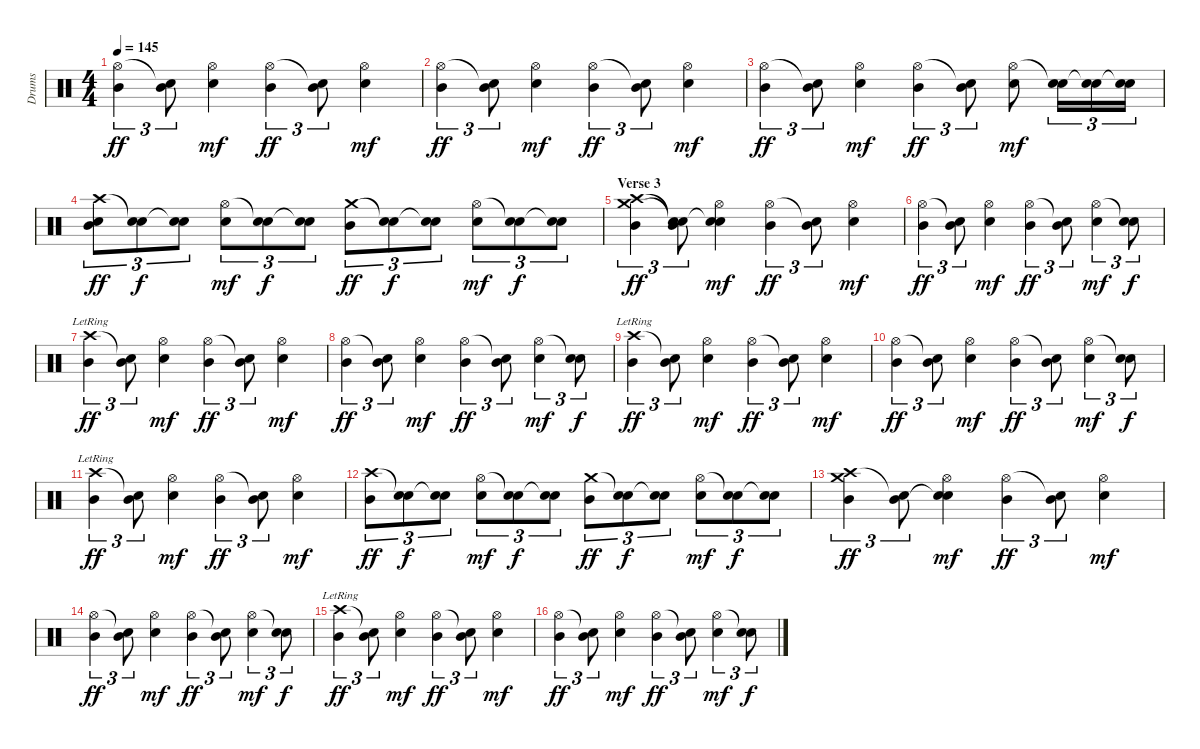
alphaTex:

\track ("Drums" "Drums") {instrument percussion}
\staff {score}
\articulation defaults
\ts (4 4)
\tempo 145
\clef neutral
\ks c
("Hi-Hat (open)" "Mid Tom (hit)").4{tu (3 2) dy ff} ("Snare (hit)"{t} "Mid Tom (hit)").8{tu (3 2)} ("Hi-Hat (open)" "Electric Snare (hit)").4{dy mf} ("Hi-Hat (open)" "Mid Tom (hit)").4{tu (3 2) dy ff} ("Snare (hit)"{t} "Mid Tom (hit)").8{tu (3 2)} ("Hi-Hat (open)" "Electric Snare (hit)").4{dy mf} |
("Hi-Hat (open)" "Mid Tom (hit)").4{tu (3 2) dy ff} ("Snare (hit)"{t} "Mid Tom (hit)").8{tu (3 2)} ("Hi-Hat (open)" "Electric Snare (hit)").4{dy mf} ("Hi-Hat (open)" "Mid Tom (hit)").4{tu (3 2) dy ff} ("Snare (hit)"{t} "Mid Tom (hit)").8{tu (3 2)} ("Hi-Hat (open)" "Electric Snare (hit)").4{dy mf} |
("Hi-Hat (open)" "Mid Tom (hit)").4{tu (3 2) dy ff} ("Snare (hit)"{t} "Mid Tom (hit)").8{tu (3 2)} ("Hi-Hat (open)" "Electric Snare (hit)").4{dy mf} ("Hi-Hat (open)" "Mid Tom (hit)").4{tu (3 2) dy ff} ("Snare (hit)"{t} "Mid Tom (hit)").8{tu (3 2)} ("Hi-Hat (open)" "Electric Snare (hit)").8{dy mf} ("Snare (hit)"{t} "Electric Snare (hit)").16{tu (3 2)} ("Snare (hit)"{t} "Electric Snare (hit)").16{tu (3 2)} ("Snare (hit)"{t} "Electric Snare (hit)").16{tu (3 2)} |
("Crash high (hit)" "Electric Snare (hit)" "Mid Tom (hit)").8{tu (3 2) dy ff} ("Snare (hit)"{t} "Electric Snare (hit)").8{tu (3 2) dy f} ("Snare (hit)"{t} "Electric Snare (hit)").8{tu (3 2)} ("Hi-Hat (open)" "Electric Snare (hit)").8{tu (3 2) dy mf} ("Snare (hit)"{t} "Electric Snare (hit)").8{tu (3 2) dy f} ("Snare (hit)"{t} "Electric Snare (hit)").8{tu (3 2)} ("Crash medium (hit)" "Mid Tom (hit)").8{tu (3 2) dy ff} ("Snare (hit)"{t} "Electric Snare (hit)").8{tu (3 2) dy f} ("Snare (hit)"{t} "Electric Snare (hit)").8{tu (3 2)} ("Hi-Hat (open)" "Electric Snare (hit)").8{tu (3 2) dy mf} ("Snare (hit)"{t} "Electric Snare (hit)").8{tu (3 2) dy f} ("Snare (hit)"{t} "Electric Snare (hit)").8{tu (3 2)} |
\section ("" "Verse 3")
("Crash high (hit)" "Crash medium (hit)" "Mid Tom (hit)").4{tu (3 2) dy ff} ("Snare (hit)"{t} "Snare (hit)"{t} "Mid Tom (hit)").8{tu (3 2)} ("Hi-Hat (open)" "Snare (hit)"{t} "Electric Snare (hit)").4{dy mf} ("Hi-Hat (open)" "Mid Tom (hit)").4{tu (3 2) dy ff} ("Snare (hit)"{t} "Mid Tom (hit)").8{tu (3 2)} ("Hi-Hat (open)" "Electric Snare (hit)").4{dy mf} |
("Hi-Hat (open)" "Mid Tom (hit)").4{tu (3 2) dy ff} ("Snare (hit)"{t} "Mid Tom (hit)").8{tu (3 2)} ("Hi-Hat (open)" "Electric Snare (hit)").4{dy mf} ("Hi-Hat (open)" "Mid Tom (hit)").4{tu (3 2) dy ff} ("Snare (hit)"{t} "Mid Tom (hit)").8{tu (3 2)} ("Hi-Hat (open)" "Electric Snare (hit)").4{tu (3 2) dy mf} ("Snare (hit)"{t} "Electric Snare (hit)").8{tu (3 2) dy f} |
("Crash high (hit)"{lr} "Mid Tom (hit)").4{tu (3 2) dy ff} ("Snare (hit)"{t} "Mid Tom (hit)").8{tu (3 2)} ("Hi-Hat (open)" "Electric Snare (hit)").4{dy mf} ("Hi-Hat (open)" "Mid Tom (hit)").4{tu (3 2) dy ff} ("Snare (hit)"{t} "Mid Tom (hit)").8{tu (3 2)} ("Hi-Hat (open)" "Electric Snare (hit)").4{dy mf} |
("Hi-Hat (open)" "Mid Tom (hit)").4{tu (3 2) dy ff} ("Snare (hit)"{t} "Mid Tom (hit)").8{tu (3 2)} ("Hi-Hat (open)" "Electric Snare (hit)").4{dy mf} ("Hi-Hat (open)" "Mid Tom (hit)").4{tu (3 2) dy ff} ("Snare (hit)"{t} "Mid Tom (hit)").8{tu (3 2)} ("Hi-Hat (open)" "Electric Snare (hit)").4{tu (3 2) dy mf} ("Snare (hit)"{t} "Electric Snare (hit)").8{tu (3 2) dy f} |
("Crash high (hit)"{lr} "Mid Tom (hit)").4{tu (3 2) dy ff} ("Snare (hit)"{t} "Mid Tom (hit)").8{tu (3 2)} ("Hi-Hat (open)" "Electric Snare (hit)").4{dy mf} ("Hi-Hat (open)" "Mid Tom (hit)").4{tu (3 2) dy ff} ("Snare (hit)"{t} "Mid Tom (hit)").8{tu (3 2)} ("Hi-Hat (open)" "Electric Snare (hit)").4{dy mf} |
("Hi-Hat (open)" "Mid Tom (hit)").4{tu (3 2) dy ff} ("Snare (hit)"{t} "Mid Tom (hit)").8{tu (3 2)} ("Hi-Hat (open)" "Electric Snare (hit)").4{dy mf} ("Hi-Hat (open)" "Mid Tom (hit)").4{tu (3 2) dy ff} ("Snare (hit)"{t} "Mid Tom (hit)").8{tu (3 2)} ("Hi-Hat (open)" "Electric Snare (hit)").4{tu (3 2) dy mf} ("Snare (hit)"{t} "Electric Snare (hit)").8{tu (3 2) dy f} |
("Crash high (hit)"{lr} "Mid Tom (hit)").4{tu (3 2) dy ff} ("Snare (hit)"{t} "Mid Tom (hit)").8{tu (3 2)} ("Hi-Hat (open)" "Electric Snare (hit)").4{dy mf} ("Hi-Hat (open)" "Mid Tom (hit)").4{tu (3 2) dy ff} ("Snare (hit)"{t} "Mid Tom (hit)").8{tu (3 2)} ("Hi-Hat (open)" "Electric Snare (hit)").4{dy mf} |
("Crash high (hit)" "Mid Tom (hit)").8{tu (3 2) dy ff} ("Snare (hit)"{t} "Electric Snare (hit)").8{tu (3 2) dy f} ("Snare (hit)"{t} "Electric Snare (hit)").8{tu (3 2)} ("Hi-Hat (open)" "Electric Snare (hit)").8{tu (3 2) dy mf} ("Snare (hit)"{t} "Electric Snare (hit)").8{tu (3 2) dy f} ("Snare (hit)"{t} "Electric Snare (hit)").8{tu (3 2)} ("Crash medium (hit)" "Mid Tom (hit)").8{tu (3 2) dy ff} ("Snare (hit)"{t} "Electric Snare (hit)").8{tu (3 2) dy f} ("Snare (hit)"{t} "Electric Snare (hit)").8{tu (3 2)} ("Hi-Hat (open)" "Electric Snare (hit)").8{tu (3 2) dy mf} ("Snare (hit)"{t} "Electric Snare (hit)").8{tu (3 2) dy f} ("Snare (hit)"{t} "Electric Snare (hit)").8{tu (3 2)} |
("Crash high (hit)" "Crash medium (hit)" "Mid Tom (hit)").4{tu (3 2) dy ff} ("Snare (hit)"{t} "Mid Tom (hit)").8{tu (3 2)} ("Hi-Hat (open)" "Snare (hit)"{t} "Electric Snare (hit)").4{dy mf} ("Hi-Hat (open)" "Mid Tom (hit)").4{tu (3 2) dy ff} ("Snare (hit)"{t} "Mid Tom (hit)").8{tu (3 2)} ("Hi-Hat (open)" "Electric Snare (hit)").4{dy mf} |
("Hi-Hat (open)" "Mid Tom (hit)").4{tu (3 2) dy ff} ("Snare (hit)"{t} "Mid Tom (hit)").8{tu (3 2)} ("Hi-Hat (open)" "Electric Snare (hit)").4{dy mf} ("Hi-Hat (open)" "Mid Tom (hit)").4{tu (3 2) dy ff} ("Snare (hit)"{t} "Mid Tom (hit)").8{tu (3 2)} ("Hi-Hat (open)" "Electric Snare (hit)").4{tu (3 2) dy mf} ("Snare (hit)"{t} "Electric Snare (hit)").8{tu (3 2) dy f} |
("Crash high (hit)"{lr} "Mid Tom (hit)").4{tu (3 2) dy ff} ("Snare (hit)"{t} "Mid Tom (hit)").8{tu (3 2)} ("Hi-Hat (open)" "Electric Snare (hit)").4{dy mf} ("Hi-Hat (open)" "Mid Tom (hit)").4{tu (3 2) dy ff} ("Snare (hit)"{t} "Mid Tom (hit)").8{tu (3 2)} ("Hi-Hat (open)" "Electric Snare (hit)").4{dy mf} |
("Hi-Hat (open)" "Mid Tom (hit)").4{tu (3 2) dy ff} ("Snare (hit)"{t} "Mid Tom (hit)").8{tu (3 2)} ("Hi-Hat (open)" "Electric Snare (hit)").4{dy mf} ("Hi-Hat (open)" "Mid Tom (hit)").4{tu (3 2) dy ff} ("Snare (hit)"{t} "Mid Tom (hit)").8{tu (3 2)} ("Hi-Hat (open)" "Electric Snare (hit)").4{tu (3 2) dy mf} ("Snare (hit)"{t} "Electric Snare (hit)").8{tu (3 2) dy f}
